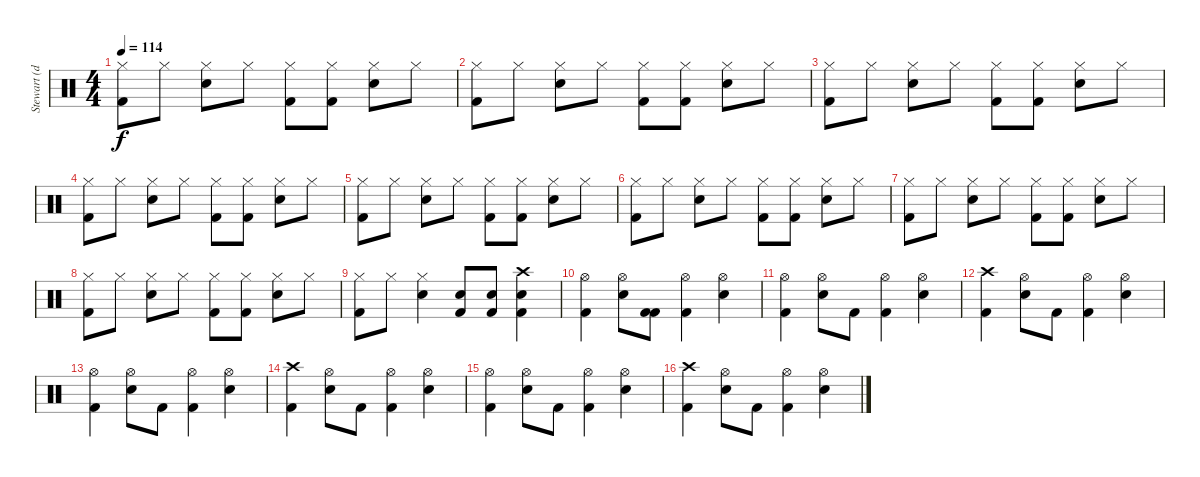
\track ("Stewart (drums)" "Stewart (d") {instrument percussion}
\staff {score}
\articulation defaults
\ts (4 4)
\tempo 114
\clef neutral
\ks c
("Hi-Hat (closed)" "Kick (hit) 2").8{dy f} "Hi-Hat (closed)".8 ("Hi-Hat (closed)" "Snare (hit) 2").8 "Hi-Hat (closed)".8 ("Hi-Hat (closed)" "Kick (hit) 2").8 ("Hi-Hat (closed)" "Kick (hit) 2").8 ("Hi-Hat (closed)" "Snare (hit) 2").8 "Hi-Hat (closed)".8 |
("Hi-Hat (closed)" "Kick (hit) 2").8 "Hi-Hat (closed)".8 ("Hi-Hat (closed)" "Snare (hit) 2").8 "Hi-Hat (closed)".8 ("Hi-Hat (closed)" "Kick (hit) 2").8 ("Hi-Hat (closed)" "Kick (hit) 2").8 ("Hi-Hat (closed)" "Snare (hit) 2").8 "Hi-Hat (closed)".8 |
("Hi-Hat (closed)" "Kick (hit) 2").8 "Hi-Hat (closed)".8 ("Hi-Hat (closed)" "Snare (hit) 2").8 "Hi-Hat (closed)".8 ("Hi-Hat (closed)" "Kick (hit) 2").8 ("Hi-Hat (closed)" "Kick (hit) 2").8 ("Hi-Hat (closed)" "Snare (hit) 2").8 "Hi-Hat (closed)".8 |
("Hi-Hat (closed)" "Kick (hit) 2").8 "Hi-Hat (closed)".8 ("Hi-Hat (closed)" "Snare (hit) 2").8 "Hi-Hat (closed)".8 ("Hi-Hat (closed)" "Kick (hit) 2").8 ("Hi-Hat (closed)" "Kick (hit) 2").8 ("Hi-Hat (closed)" "Snare (hit) 2").8 "Hi-Hat (closed)".8 |
("Hi-Hat (closed)" "Kick (hit) 2").8 "Hi-Hat (closed)".8 ("Hi-Hat (closed)" "Snare (hit) 2").8 "Hi-Hat (closed)".8 ("Hi-Hat (closed)" "Kick (hit) 2").8 ("Hi-Hat (closed)" "Kick (hit) 2").8 ("Hi-Hat (closed)" "Snare (hit) 2").8 "Hi-Hat (closed)".8 |
("Hi-Hat (closed)" "Kick (hit) 2").8 "Hi-Hat (closed)".8 ("Hi-Hat (closed)" "Snare (hit) 2").8 "Hi-Hat (closed)".8 ("Hi-Hat (closed)" "Kick (hit) 2").8 ("Hi-Hat (closed)" "Kick (hit) 2").8 ("Hi-Hat (closed)" "Snare (hit) 2").8 "Hi-Hat (closed)".8 |
("Hi-Hat (closed)" "Kick (hit) 2").8 "Hi-Hat (closed)".8 ("Hi-Hat (closed)" "Snare (hit) 2").8 "Hi-Hat (closed)".8 ("Hi-Hat (closed)" "Kick (hit) 2").8 ("Hi-Hat (closed)" "Kick (hit) 2").8 ("Hi-Hat (closed)" "Snare (hit) 2").8 "Hi-Hat (closed)".8 |
("Hi-Hat (closed)" "Kick (hit) 2").8 "Hi-Hat (closed)".8 ("Hi-Hat (closed)" "Snare (hit) 2").8 "Hi-Hat (closed)".8 ("Hi-Hat (closed)" "Kick (hit) 2").8 ("Hi-Hat (closed)" "Kick (hit) 2").8 ("Hi-Hat (closed)" "Snare (hit) 2").8 "Hi-Hat (closed)".8 |
("Hi-Hat (closed)" "Kick (hit) 2").8 "Hi-Hat (closed)".8 ("Hi-Hat (closed)" "Snare (hit) 2").4 ("Snare (hit) 2" "Kick (hit) 2").8 ("Snare (hit) 2" "Kick (hit) 2").8 ("Crash high (hit)" "Snare (hit) 2" "Kick (hit) 2").4 |
("Hi-Hat (open)" "Kick (hit) 2").4 ("Hi-Hat (open)" "Snare (hit) 2").8 ("Kick (hit) 2" "Kick (hit) 2").8 ("Hi-Hat (open)" "Kick (hit) 2").4 ("Hi-Hat (open)" "Snare (hit) 2").4 |
("Hi-Hat (open)" "Kick (hit) 2").4 ("Hi-Hat (open)" "Snare (hit) 2").8 "Kick (hit) 2".8 ("Hi-Hat (open)" "Kick (hit) 2").4 ("Hi-Hat (open)" "Snare (hit) 2").4 |
("Crash high (hit)" "Kick (hit) 2").4 ("Hi-Hat (open)" "Snare (hit) 2").8 "Kick (hit) 2".8 ("Hi-Hat (open)" "Kick (hit) 2").4 ("Hi-Hat (open)" "Snare (hit) 2").4 |
("Hi-Hat (open)" "Kick (hit) 2").4 ("Hi-Hat (open)" "Snare (hit) 2").8 "Kick (hit) 2".8 ("Hi-Hat (open)" "Kick (hit) 2").4 ("Hi-Hat (open)" "Snare (hit) 2").4 |
("Crash high (hit)" "Kick (hit) 2").4 ("Hi-Hat (open)" "Snare (hit) 2").8 "Kick (hit) 2".8 ("Hi-Hat (open)" "Kick (hit) 2").4 ("Hi-Hat (open)" "Snare (hit) 2").4 |
("Hi-Hat (open)" "Kick (hit) 2").4 ("Hi-Hat (open)" "Snare (hit) 2").8 "Kick (hit) 2".8 ("Hi-Hat (open)" "Kick (hit) 2").4 ("Hi-Hat (open)" "Snare (hit) 2").4 |
("Crash high (hit)" "Kick (hit) 2").4 ("Hi-Hat (open)" "Snare (hit) 2").8 "Kick (hit) 2".8 ("Hi-Hat (open)" "Kick (hit) 2").4 ("Hi-Hat (open)" "Snare (hit) 2").4
